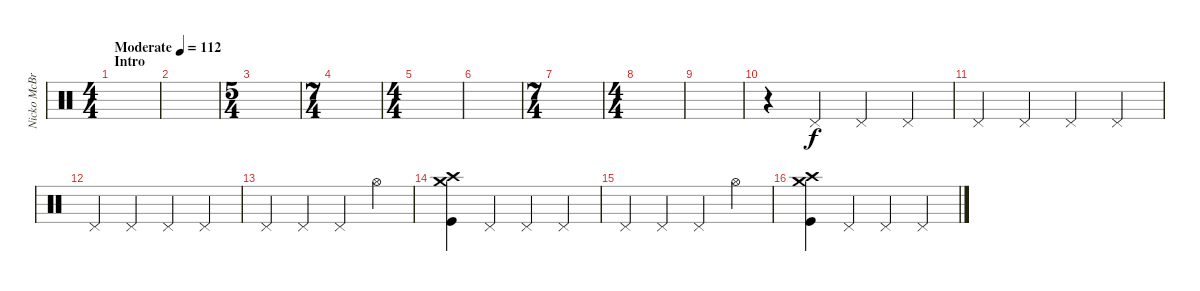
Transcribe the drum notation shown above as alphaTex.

\track ("Nicko McBrain" "Nicko McBr") {instrument percussion}
\staff {score}
\articulation defaults
\ts (4 4)
\section ("" "Intro")
\tempo (112 "Moderate")
\clef neutral
\ks c
|
|
\ts (5 4)
|
\ts (7 4)
|
\ts (4 4)
|
|
\ts (7 4)
|
\ts (4 4)
|
|
r.4 "Pedal Hi-Hat (hit)".4 "Pedal Hi-Hat (hit)".4 "Pedal Hi-Hat (hit)".4 |
"Pedal Hi-Hat (hit)".4 "Pedal Hi-Hat (hit)".4 "Pedal Hi-Hat (hit)".4 "Pedal Hi-Hat (hit)".4 |
"Pedal Hi-Hat (hit)".4 "Pedal Hi-Hat (hit)".4 "Pedal Hi-Hat (hit)".4 "Pedal Hi-Hat (hit)".4 |
"Pedal Hi-Hat (hit)".4 "Pedal Hi-Hat (hit)".4 "Pedal Hi-Hat (hit)".4 "Hi-Hat (open)".4 |
("Crash medium (hit)" "Crash high (hit)" "Kick (hit)").4 "Pedal Hi-Hat (hit)".4 "Pedal Hi-Hat (hit)".4 "Pedal Hi-Hat (hit)".4 |
"Pedal Hi-Hat (hit)".4 "Pedal Hi-Hat (hit)".4 "Pedal Hi-Hat (hit)".4 "Hi-Hat (open)".4 |
("Crash medium (hit)" "Crash high (hit)" "Kick (hit)").4 "Pedal Hi-Hat (hit)".4 "Pedal Hi-Hat (hit)".4 "Pedal Hi-Hat (hit)".4
